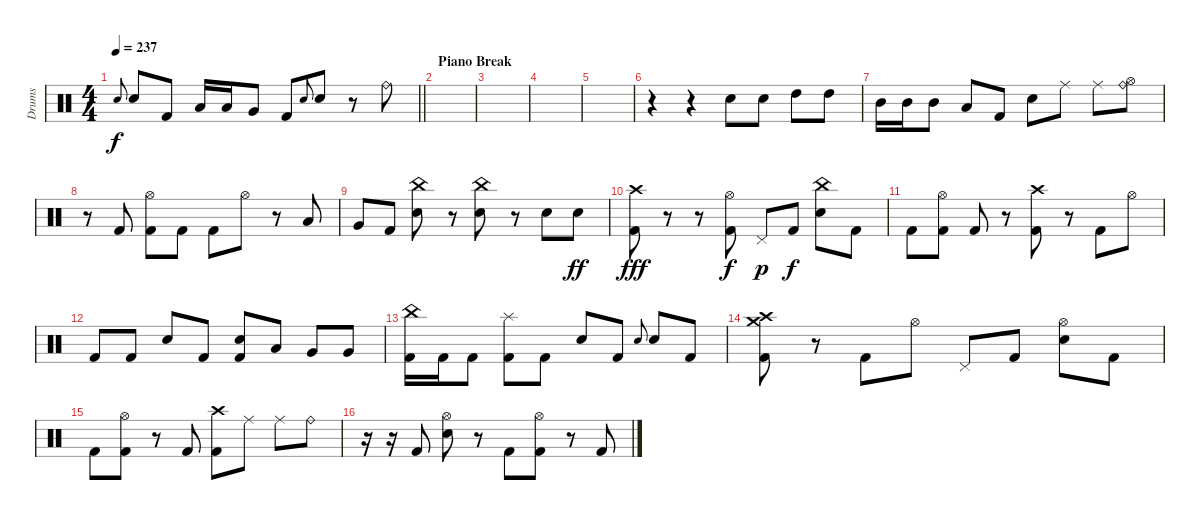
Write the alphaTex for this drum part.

\track ("Drums" "Drums") {instrument percussion}
\staff {score}
\articulation defaults
\ts (4 4)
\tempo 237
\clef neutral
\barLineRight lightlight
\ks c "Electric Snare (hit)".8{gr onbeat dy f} "Electric Snare (hit)".8 "Kick (hit) 2".8 "Low Tom (hit)".16 "Low Tom (hit)".16 "Very Low Tom (hit)".8 "Kick (hit) 2".8 "Electric Snare (hit)".8{gr onbeat} "Electric Snare (hit)".8
r.8 "Ride (bell)".8 |
\section ("" "Piano Break")
|
|
|
|
r.4 r.4 "Electric Snare (hit)".8 "Electric Snare (hit)".8 "High Tom (hit)".8 "High Tom (hit)".8 |
"Mid Tom (hit)".16 "Mid Tom (hit)".16 "Mid Tom (hit)".8 "Low Tom (hit)".8 "Kick (hit) 2".8 "Electric Snare (hit)".8 "Ride (middle)".8 "Ride (middle)".8 ("Ride (bell)" "Hi-Hat (open)").8 |
r.8 "Kick (hit) 2".8 ("Hi-Hat (open)" "Kick (hit) 2").8 "Kick (hit) 2".8 "Kick (hit) 2".8 "Hi-Hat (open)".8 r.8 "Low Tom (hit)".8 |
"Very Low Tom (hit)".8 "Kick (hit) 2".8 ("China (hit)" "Electric Snare (hit)").8 r.8 ("China (hit)" "Electric Snare (hit)").8 r.8 "Electric Snare (hit)".8 "Electric Snare (hit)".8{dy ff} |
("Crash high (hit)" "Kick (hit) 2").8{dy fff} r.8 r.8 ("Hi-Hat (open)" "Kick (hit) 2").8{dy f} "Pedal Hi-Hat (hit)".8{dy p} "Kick (hit) 2".8{dy f} ("China (hit)" "Electric Snare (hit)").8 "Kick (hit) 2".8 |
"Kick (hit) 2".8 ("Hi-Hat (open)" "Kick (hit) 2").8 "Kick (hit) 2".8 r.8 ("Crash high (hit)" "Kick (hit) 2").8 r.8 "Kick (hit) 2".8 "Hi-Hat (open)".8 |
"Kick (hit) 2".8 "Kick (hit) 2".8 "Electric Snare (hit)".8 "Kick (hit) 2".8 ("Electric Snare (hit)" "Kick (hit) 2").8 "Low Tom (hit)".8 "Very Low Tom (hit)".8 "Very Low Tom (hit)".8 |
("China (hit)" "Kick (hit) 2").16 "Kick (hit) 2".16 "Kick (hit) 2".8 ("Splash (hit)" "Kick (hit) 2").8 "Kick (hit) 2".8 "Electric Snare (hit)".8 "Kick (hit) 2".8 "Electric Snare (hit)".8{gr onbeat} "Electric Snare (hit)".8 "Kick (hit) 2".8 |
("Crash high (hit)" "Crash medium (hit)" "Kick (hit) 2").8 r.8 "Kick (hit) 2".8 "Hi-Hat (open)".8 "Pedal Hi-Hat (hit)".8 "Kick (hit) 2".8 ("Hi-Hat (open)" "Electric Snare (hit)").8 "Kick (hit) 2".8 |
"Kick (hit) 2".8 ("Hi-Hat (open)" "Kick (hit) 2").8 r.8 "Kick (hit) 2".8 ("Crash high (hit)" "Kick (hit) 2").8 "Ride (middle)".8 "Ride (middle)".8 "Ride (bell)".8 |
r.16 r.16 "Kick (hit) 2".8 ("Hi-Hat (open)" "Electric Snare (hit)").8 r.8 "Kick (hit) 2".8 ("Hi-Hat (open)" "Kick (hit) 2").8 r.8 "Kick (hit) 2".8
